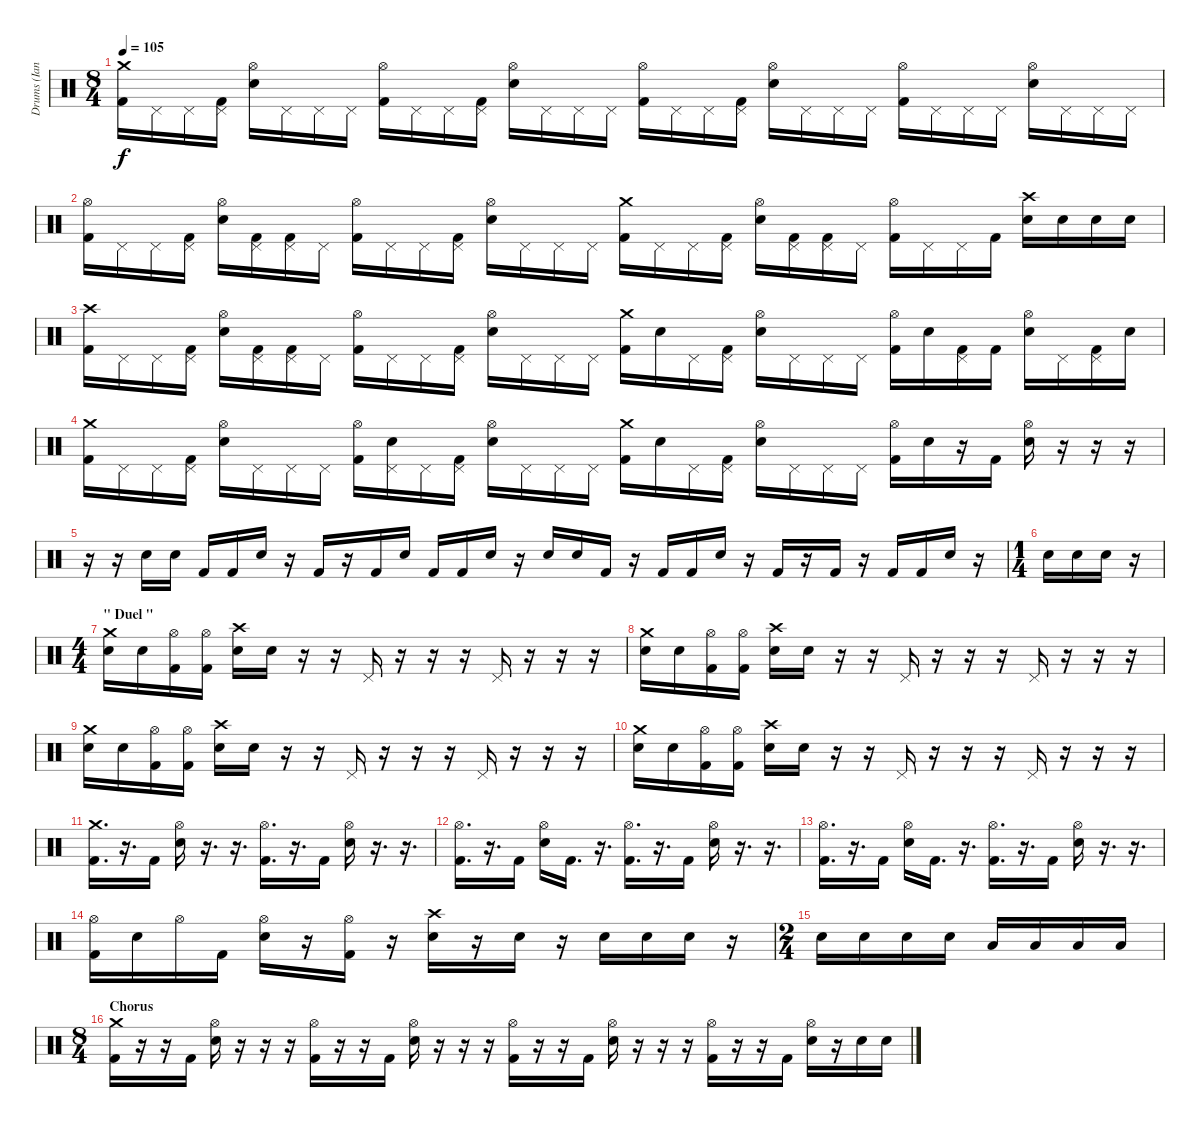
\track ("Drums (Ian Paice)" "Drums (Ian") {instrument percussion}
\staff {score}
\articulation defaults
\ts (8 4)
\tempo 105
\clef neutral
\ks c
("Crash medium (hit)" "Kick (hit) 2").16{dy f} "Pedal Hi-Hat (hit)".16 "Pedal Hi-Hat (hit)".16 ("Pedal Hi-Hat (hit)" "Kick (hit) 2").16 ("Hi-Hat (open)" "Electric Snare (hit)").16 "Pedal Hi-Hat (hit)".16 "Pedal Hi-Hat (hit)".16 "Pedal Hi-Hat (hit)".16 ("Hi-Hat (open)" "Kick (hit) 2").16 "Pedal Hi-Hat (hit)".16 "Pedal Hi-Hat (hit)".16 ("Pedal Hi-Hat (hit)" "Kick (hit) 2").16 ("Hi-Hat (open)" "Electric Snare (hit)").16 "Pedal Hi-Hat (hit)".16 "Pedal Hi-Hat (hit)".16 "Pedal Hi-Hat (hit)".16 ("Hi-Hat (open)" "Kick (hit) 2").16 "Pedal Hi-Hat (hit)".16 "Pedal Hi-Hat (hit)".16 ("Pedal Hi-Hat (hit)" "Kick (hit) 2").16 ("Hi-Hat (open)" "Electric Snare (hit)").16 "Pedal Hi-Hat (hit)".16 "Pedal Hi-Hat (hit)".16 "Pedal Hi-Hat (hit)".16 ("Hi-Hat (open)" "Kick (hit) 2").16 "Pedal Hi-Hat (hit)".16 "Pedal Hi-Hat (hit)".16 "Pedal Hi-Hat (hit)".16 ("Hi-Hat (open)" "Electric Snare (hit)").16 "Pedal Hi-Hat (hit)".16 "Pedal Hi-Hat (hit)".16 "Pedal Hi-Hat (hit)".16 |
("Hi-Hat (open)" "Kick (hit) 2").16 "Pedal Hi-Hat (hit)".16 "Pedal Hi-Hat (hit)".16 ("Pedal Hi-Hat (hit)" "Kick (hit) 2").16 ("Hi-Hat (open)" "Electric Snare (hit)").16 ("Pedal Hi-Hat (hit)" "Kick (hit) 2").16 ("Pedal Hi-Hat (hit)" "Kick (hit) 2").16 "Pedal Hi-Hat (hit)".16 ("Hi-Hat (open)" "Kick (hit) 2").16 "Pedal Hi-Hat (hit)".16 "Pedal Hi-Hat (hit)".16 ("Pedal Hi-Hat (hit)" "Kick (hit) 2").16 ("Hi-Hat (open)" "Electric Snare (hit)").16 "Pedal Hi-Hat (hit)".16 "Pedal Hi-Hat (hit)".16 "Pedal Hi-Hat (hit)".16 ("Crash medium (hit)" "Kick (hit) 2").16 "Pedal Hi-Hat (hit)".16 "Pedal Hi-Hat (hit)".16 ("Pedal Hi-Hat (hit)" "Kick (hit) 2").16 ("Hi-Hat (open)" "Electric Snare (hit)").16 ("Pedal Hi-Hat (hit)" "Kick (hit) 2").16 ("Pedal Hi-Hat (hit)" "Kick (hit) 2").16 "Pedal Hi-Hat (hit)".16 ("Hi-Hat (open)" "Kick (hit) 2").16 "Pedal Hi-Hat (hit)".16 "Pedal Hi-Hat (hit)".16 "Kick (hit) 2".16 ("Crash high (hit)" "Electric Snare (hit)").16 "Electric Snare (hit)".16 "Electric Snare (hit)".16 "Electric Snare (hit)".16 |
("Crash high (hit)" "Kick (hit) 2").16 "Pedal Hi-Hat (hit)".16 "Pedal Hi-Hat (hit)".16 ("Pedal Hi-Hat (hit)" "Kick (hit) 2").16 ("Hi-Hat (open)" "Electric Snare (hit)").16 ("Pedal Hi-Hat (hit)" "Kick (hit) 2").16 ("Pedal Hi-Hat (hit)" "Kick (hit) 2").16 "Pedal Hi-Hat (hit)".16 ("Hi-Hat (open)" "Kick (hit) 2").16 "Pedal Hi-Hat (hit)".16 "Pedal Hi-Hat (hit)".16 ("Pedal Hi-Hat (hit)" "Kick (hit) 2").16 ("Hi-Hat (open)" "Electric Snare (hit)").16 "Pedal Hi-Hat (hit)".16 "Pedal Hi-Hat (hit)".16 "Pedal Hi-Hat (hit)".16 ("Crash medium (hit)" "Kick (hit) 2").16 "Electric Snare (hit)".16 "Pedal Hi-Hat (hit)".16 ("Pedal Hi-Hat (hit)" "Kick (hit) 2").16 ("Hi-Hat (open)" "Electric Snare (hit)").16 "Pedal Hi-Hat (hit)".16 "Pedal Hi-Hat (hit)".16 "Pedal Hi-Hat (hit)".16 ("Hi-Hat (open)" "Kick (hit) 2").16 "Electric Snare (hit)".16 ("Pedal Hi-Hat (hit)" "Kick (hit) 2").16 "Kick (hit) 2".16 ("Hi-Hat (open)" "Electric Snare (hit)").16 "Pedal Hi-Hat (hit)".16 ("Pedal Hi-Hat (hit)" "Kick (hit) 2").16 "Snare (hit)".16 |
("Crash medium (hit)" "Kick (hit) 2").16 "Pedal Hi-Hat (hit)".16 "Pedal Hi-Hat (hit)".16 ("Pedal Hi-Hat (hit)" "Kick (hit) 2").16 ("Hi-Hat (open)" "Electric Snare (hit)").16 "Pedal Hi-Hat (hit)".16 "Pedal Hi-Hat (hit)".16 "Pedal Hi-Hat (hit)".16 ("Hi-Hat (open)" "Kick (hit) 2").16 ("Pedal Hi-Hat (hit)" "Electric Snare (hit)").16 "Pedal Hi-Hat (hit)".16 ("Pedal Hi-Hat (hit)" "Kick (hit) 2").16 ("Hi-Hat (open)" "Electric Snare (hit)").16 "Pedal Hi-Hat (hit)".16 "Pedal Hi-Hat (hit)".16 "Pedal Hi-Hat (hit)".16 ("Crash medium (hit)" "Kick (hit) 2").16 "Electric Snare (hit)".16 "Pedal Hi-Hat (hit)".16 ("Pedal Hi-Hat (hit)" "Kick (hit) 2").16 ("Hi-Hat (open)" "Electric Snare (hit)").16 "Pedal Hi-Hat (hit)".16 "Pedal Hi-Hat (hit)".16 "Pedal Hi-Hat (hit)".16 ("Hi-Hat (open)" "Kick (hit) 2").16 "Electric Snare (hit)".16 r.16 "Kick (hit) 2".16 ("Hi-Hat (open)" "Electric Snare (hit)").16 r.16 r.16 r.16 |
r.16 r.16 "Electric Snare (hit)".16 "Electric Snare (hit)".16 "Kick (hit) 2".16 "Kick (hit) 2".16 "Electric Snare (hit)".16 r.16 "Kick (hit) 2".16 r.16 "Kick (hit) 2".16 "Electric Snare (hit)".16 "Kick (hit) 2".16 "Kick (hit) 2".16 "Electric Snare (hit)".16 r.16 "Electric Snare (hit)".16 "Electric Snare (hit)".16 "Kick (hit) 2".16 r.16 "Kick (hit) 2".16 "Kick (hit) 2".16 "Electric Snare (hit)".16 r.16 "Kick (hit) 2".16 r.16 "Kick (hit) 2".16 r.16 "Kick (hit) 2".16 "Kick (hit) 2".16 "Electric Snare (hit)".16 r.16 |
\ts (1 4)
"Electric Snare (hit)".16 "Electric Snare (hit)".16 "Electric Snare (hit)".16 r.16 |
\ts (4 4)
\section ("" "\" Duel \" ")
("Crash medium (hit)" "Electric Snare (hit)").16 "Electric Snare (hit)".16 ("Hi-Hat (open)" "Kick (hit) 2").16 ("Hi-Hat (open)" "Kick (hit) 2").16 ("Crash high (hit)" "Electric Snare (hit)").16 "Electric Snare (hit)".16 r.16 r.16 "Pedal Hi-Hat (hit)".16 r.16 r.16 r.16 "Pedal Hi-Hat (hit)".16 r.16 r.16 r.16 |
("Crash medium (hit)" "Electric Snare (hit)").16 "Electric Snare (hit)".16 ("Hi-Hat (open)" "Kick (hit) 2").16 ("Hi-Hat (open)" "Kick (hit) 2").16 ("Crash high (hit)" "Electric Snare (hit)").16 "Electric Snare (hit)".16 r.16 r.16 "Pedal Hi-Hat (hit)".16 r.16 r.16 r.16 "Pedal Hi-Hat (hit)".16 r.16 r.16 r.16 |
("Crash medium (hit)" "Electric Snare (hit)").16 "Electric Snare (hit)".16 ("Hi-Hat (open)" "Kick (hit) 2").16 ("Hi-Hat (open)" "Kick (hit) 2").16 ("Crash high (hit)" "Electric Snare (hit)").16 "Electric Snare (hit)".16 r.16 r.16 "Pedal Hi-Hat (hit)".16 r.16 r.16 r.16 "Pedal Hi-Hat (hit)".16 r.16 r.16 r.16 |
("Crash medium (hit)" "Electric Snare (hit)").16 "Electric Snare (hit)".16 ("Hi-Hat (open)" "Kick (hit) 2").16 ("Hi-Hat (open)" "Kick (hit) 2").16 ("Crash high (hit)" "Electric Snare (hit)").16 "Electric Snare (hit)".16 r.16 r.16 "Pedal Hi-Hat (hit)".16 r.16 r.16 r.16 "Pedal Hi-Hat (hit)".16 r.16 r.16 r.16 |
("Crash medium (hit)" "Kick (hit) 2").16{d} r.16{d} "Kick (hit) 2".16 ("Hi-Hat (open)" "Electric Snare (hit)").16 r.16{d} r.16{d} ("Hi-Hat (open)" "Kick (hit) 2").16{d} r.16{d} "Kick (hit) 2".16 ("Hi-Hat (open)" "Electric Snare (hit)").16 r.16{d} r.16{d} |
("Hi-Hat (open)" "Kick (hit) 2").16{d} r.16{d} "Kick (hit) 2".16 ("Hi-Hat (open)" "Electric Snare (hit)").16 "Kick (hit) 2".16{d} r.16{d} ("Hi-Hat (open)" "Kick (hit) 2").16{d} r.16{d} "Kick (hit) 2".16 ("Hi-Hat (open)" "Electric Snare (hit)").16 r.16{d} r.16{d} |
("Hi-Hat (open)" "Kick (hit) 2").16{d} r.16{d} "Kick (hit) 2".16 ("Hi-Hat (open)" "Electric Snare (hit)").16 "Kick (hit) 2".16{d} r.16{d} ("Hi-Hat (open)" "Kick (hit) 2").16{d} r.16{d} "Kick (hit) 2".16 ("Hi-Hat (open)" "Electric Snare (hit)").16 r.16{d} r.16{d} |
("Hi-Hat (open)" "Kick (hit) 2").16 "Electric Snare (hit)".16 "Hi-Hat (open)".16 "Kick (hit) 2".16 ("Hi-Hat (open)" "Electric Snare (hit)").16 r.16 ("Hi-Hat (open)" "Kick (hit) 2").16 r.16 ("Crash high (hit)" "Electric Snare (hit)").16 r.16 "Electric Snare (hit)".16 r.16 "Electric Snare (hit)".16 "Electric Snare (hit)".16 "Electric Snare (hit)".16 r.16 |
\ts (2 4)
"Electric Snare (hit)".16 "Electric Snare (hit)".16 "Electric Snare (hit)".16 "Electric Snare (hit)".16 "Low Tom (hit)".16 "Low Tom (hit)".16 "Low Tom (hit)".16 "Low Tom (hit)".16 |
\ts (8 4)
\section ("" "Chorus")
("Crash medium (hit)" "Kick (hit) 2").16 r.16 r.16 "Kick (hit) 2".16 ("Hi-Hat (open)" "Electric Snare (hit)").16 r.16 r.16 r.16 ("Hi-Hat (open)" "Kick (hit) 2").16 r.16 r.16 "Kick (hit) 2".16 ("Hi-Hat (open)" "Electric Snare (hit)").16 r.16 r.16 r.16 ("Hi-Hat (open)" "Kick (hit) 2").16 r.16 r.16 "Kick (hit) 2".16 ("Hi-Hat (open)" "Electric Snare (hit)").16 r.16 r.16 r.16 ("Hi-Hat (open)" "Kick (hit) 2").16 r.16 r.16 "Kick (hit) 2".16 ("Hi-Hat (open)" "Electric Snare (hit)").16 r.16 "Electric Snare (hit)".16 "Electric Snare (hit)".16
